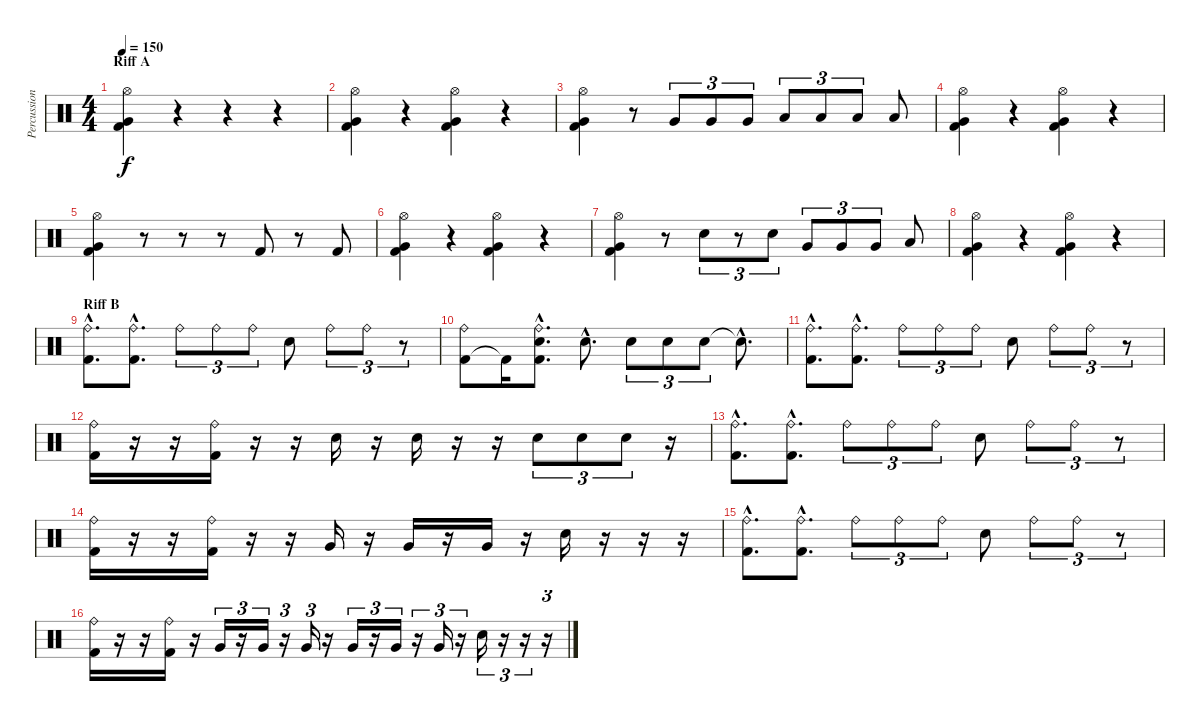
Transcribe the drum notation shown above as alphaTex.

\track ("Percussion" "Percussion") {instrument percussion}
\staff {score}
\articulation defaults
\ts (4 4)
\section ("" "Riff A")
\tempo 150
\clef neutral
\ks c
("Kick (hit) 2" "Very Low Tom (hit)" "Hi-Hat (open)").4{dy f} r.4 r.4 r.4 |
("Kick (hit) 2" "Very Low Tom (hit)" "Hi-Hat (open)").4 r.4 ("Kick (hit) 2" "Very Low Tom (hit)" "Hi-Hat (open)").4 r.4 |
("Kick (hit) 2" "Very Low Tom (hit)" "Hi-Hat (open)").4 r.8 "Very Low Tom (hit)".8{tu (3 2)} "Very Low Tom (hit)".8{tu (3 2)} "Very Low Tom (hit)".8{tu (3 2)} "Low Floor Tom (hit)".8{tu (3 2)} "Low Floor Tom (hit)".8{tu (3 2)} "Low Floor Tom (hit)".8{tu (3 2)} "Low Floor Tom (hit)".8 |
("Kick (hit) 2" "Very Low Tom (hit)" "Hi-Hat (open)").4 r.4 ("Kick (hit) 2" "Very Low Tom (hit)" "Hi-Hat (open)").4 r.4 |
("Kick (hit) 2" "Very Low Tom (hit)" "Hi-Hat (open)").4 r.8 r.8 r.8 "Kick (hit) 2".8 r.8 "Kick (hit) 2".8 |
("Kick (hit) 2" "Very Low Tom (hit)" "Hi-Hat (open)").4 r.4 ("Kick (hit) 2" "Very Low Tom (hit)" "Hi-Hat (open)").4 r.4 |
("Kick (hit) 2" "Very Low Tom (hit)" "Hi-Hat (open)").4 r.8 "Electric Snare (hit)".8{tu (3 2)} r.8{tu (3 2)} "Electric Snare (hit)".8{tu (3 2)} "Very Low Tom (hit)".8{tu (3 2)} "Very Low Tom (hit)".8{tu (3 2)} "Very Low Tom (hit)".8{tu (3 2)} "Low Floor Tom (hit)".8 |
("Kick (hit) 2" "Very Low Tom (hit)" "Hi-Hat (open)").4 r.4 ("Kick (hit) 2" "Very Low Tom (hit)" "Hi-Hat (open)").4 r.4 |
\section ("" "Riff B")
("Kick (hit) 2"{hac} "Ride (bell)"{hac}).8{d} ("Kick (hit) 2"{hac} "Ride (bell)"{hac}).8{d} "Ride (bell)".8{tu (3 2)} "Ride (bell)".8{tu (3 2)} "Ride (bell)".8{tu (3 2)} "Snare (hit) 2".8 "Ride (bell)".8{tu (3 2)} "Ride (bell)".8{tu (3 2)} r.8{tu (3 2)} |
("Kick (hit) 2" "Ride (bell)").8 "Kick (hit) 2"{t}.16 ("Kick (hit) 2"{hac} "Snare (hit) 2"{hac} "Ride (bell)"{hac}).8{d} "Snare (hit) 2"{hac}.8{d} "Snare (hit) 2".8{tu (3 2)} "Snare (hit) 2".8{tu (3 2)} "Snare (hit) 2".8{tu (3 2)} "Snare (hit) 2"{hac t}.8{d} |
("Kick (hit) 2"{hac} "Ride (bell)"{hac}).8{d} ("Kick (hit) 2"{hac} "Ride (bell)"{hac}).8{d} "Ride (bell)".8{tu (3 2)} "Ride (bell)".8{tu (3 2)} "Ride (bell)".8{tu (3 2)} "Snare (hit) 2".8 "Ride (bell)".8{tu (3 2)} "Ride (bell)".8{tu (3 2)} r.8{tu (3 2)} |
("Kick (hit) 2" "Ride (bell)").16 r.16 r.16 ("Kick (hit) 2" "Ride (bell)").16 r.16 r.16 "Electric Snare (hit)".16 r.16 "Snare (hit) 2".16 r.16 r.16 "Electric Snare (hit)".8{tu (3 2)} "Electric Snare (hit)".8{tu (3 2)} "Snare (hit) 2".8{tu (3 2)} r.16 |
("Kick (hit) 2"{hac} "Ride (bell)"{hac}).8{d} ("Kick (hit) 2"{hac} "Ride (bell)"{hac}).8{d} "Ride (bell)".8{tu (3 2)} "Ride (bell)".8{tu (3 2)} "Ride (bell)".8{tu (3 2)} "Snare (hit) 2".8 "Ride (bell)".8{tu (3 2)} "Ride (bell)".8{tu (3 2)} r.8{tu (3 2)} |
("Kick (hit) 2" "Ride (bell)").16 r.16 r.16 ("Kick (hit) 2" "Ride (bell)").16 r.16 r.16 "Very Low Tom (hit)".16 r.16 "Very Low Tom (hit)".16 r.16 "Very Low Tom (hit)".16 r.16 "Electric Snare (hit)".16 r.16 r.16 r.16 |
("Kick (hit) 2"{hac} "Ride (bell)"{hac}).8{d} ("Kick (hit) 2"{hac} "Ride (bell)"{hac}).8{d} "Ride (bell)".8{tu (3 2)} "Ride (bell)".8{tu (3 2)} "Ride (bell)".8{tu (3 2)} "Snare (hit) 2".8 "Ride (bell)".8{tu (3 2)} "Ride (bell)".8{tu (3 2)} r.8{tu (3 2)} |
("Kick (hit) 2" "Ride (bell)").16 r.16 r.16 ("Kick (hit) 2" "Ride (bell)").16 r.16 "Very Low Tom (hit)".16{tu (3 2)} r.16{tu (3 2)} "Very Low Tom (hit)".16{tu (3 2)} r.16{tu (3 2)} "Very Low Tom (hit)".16{tu (3 2)} r.16 "Very Low Tom (hit)".16{tu (3 2)} r.16{tu (3 2)} "Very Low Tom (hit)".16{tu (3 2)} r.16{tu (3 2)} "Very Low Tom (hit)".16{tu (3 2)} r.16{tu (3 2)} "Electric Snare (hit)".16{tu (3 2)} r.16{tu (3 2)} r.16{tu (3 2)} r.16{tu (3 2)}
